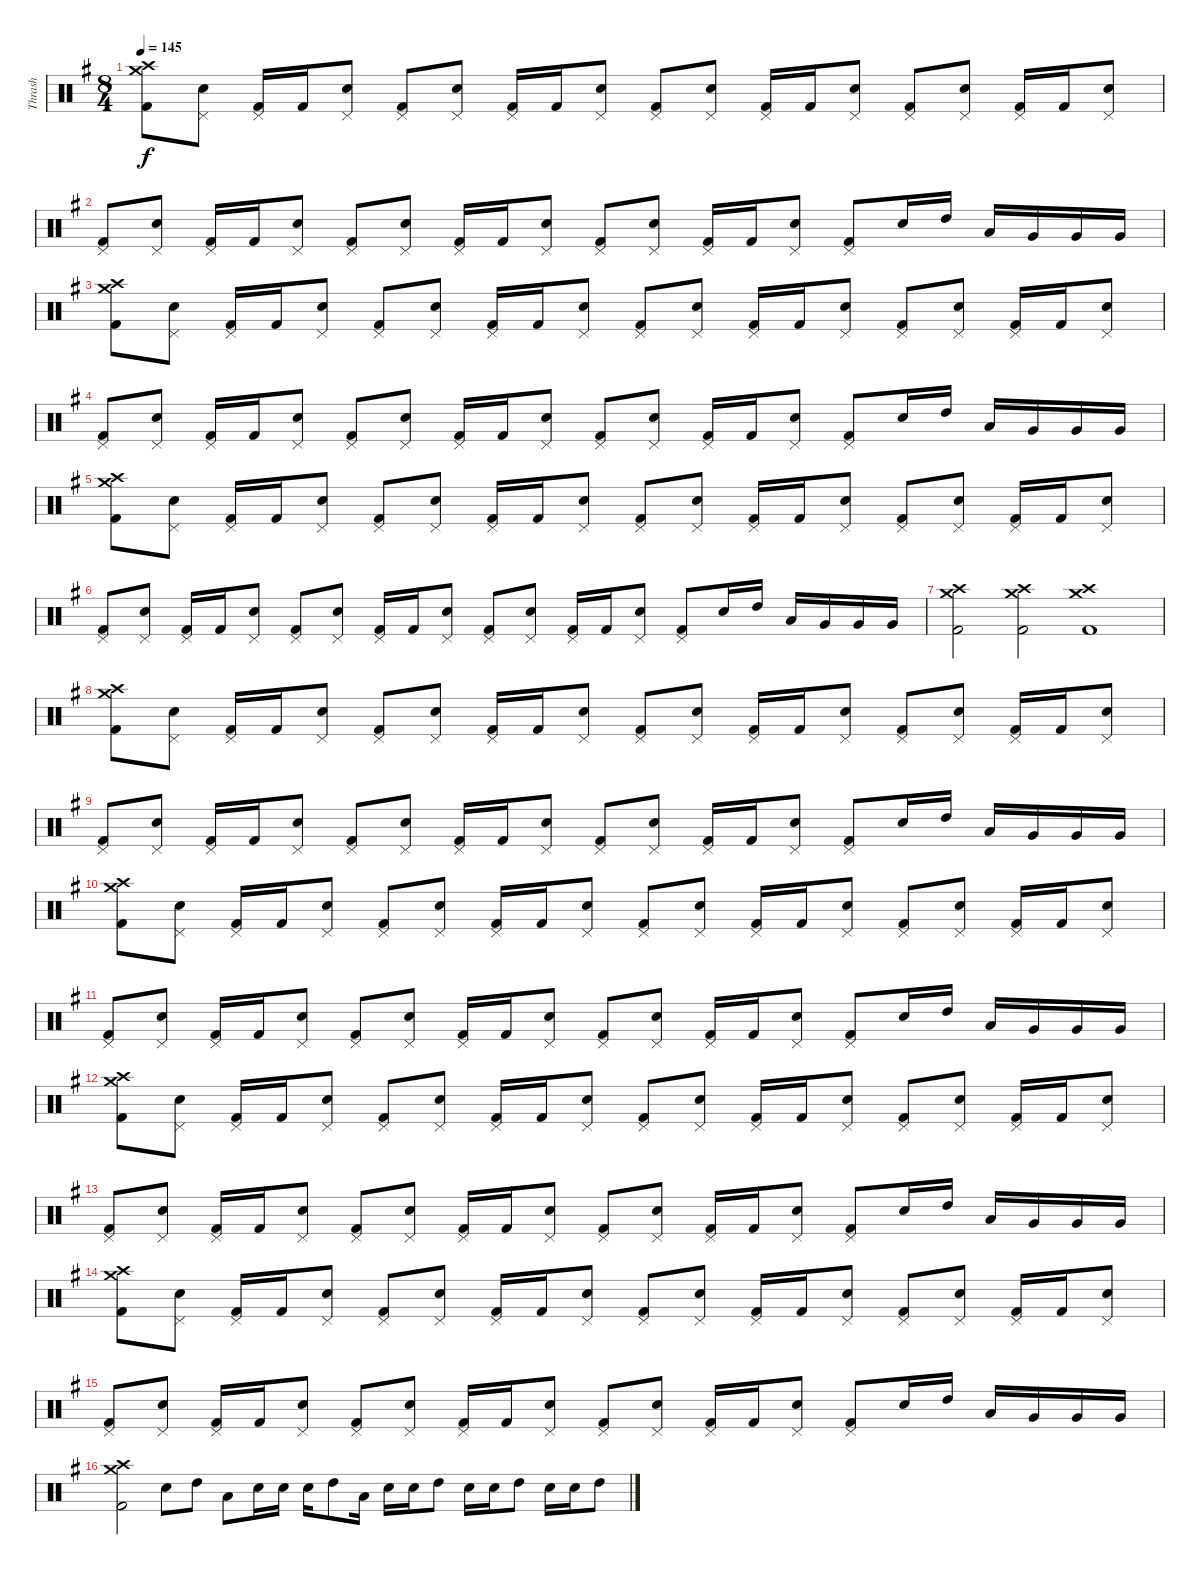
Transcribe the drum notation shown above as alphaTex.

\track ("Thrash" "Thrash") {instrument percussion}
\staff {score}
\articulation defaults
\ts (8 4)
\tempo 145
\clef neutral
\ks eminor
("Crash medium (hit)" "Crash high (hit)" "Kick (hit) 2").8{dy f} ("Pedal Hi-Hat (hit)" "Snare (hit) 2").8 ("Pedal Hi-Hat (hit)" "Kick (hit) 2").16 "Kick (hit) 2".16 ("Pedal Hi-Hat (hit)" "Snare (hit) 2").8 ("Pedal Hi-Hat (hit)" "Kick (hit) 2").8 ("Pedal Hi-Hat (hit)" "Snare (hit) 2").8 ("Pedal Hi-Hat (hit)" "Kick (hit) 2").16 "Kick (hit) 2".16 ("Pedal Hi-Hat (hit)" "Snare (hit) 2").8 ("Pedal Hi-Hat (hit)" "Kick (hit) 2").8 ("Pedal Hi-Hat (hit)" "Snare (hit) 2").8 ("Pedal Hi-Hat (hit)" "Kick (hit) 2").16 "Kick (hit) 2".16 ("Pedal Hi-Hat (hit)" "Snare (hit) 2").8 ("Pedal Hi-Hat (hit)" "Kick (hit) 2").8 ("Pedal Hi-Hat (hit)" "Snare (hit) 2").8 ("Pedal Hi-Hat (hit)" "Kick (hit) 2").16 "Kick (hit) 2".16 ("Pedal Hi-Hat (hit)" "Snare (hit) 2").8 |
("Pedal Hi-Hat (hit)" "Kick (hit) 2").8 ("Pedal Hi-Hat (hit)" "Snare (hit) 2").8 ("Pedal Hi-Hat (hit)" "Kick (hit) 2").16 "Kick (hit) 2".16 ("Pedal Hi-Hat (hit)" "Snare (hit) 2").8 ("Pedal Hi-Hat (hit)" "Kick (hit) 2").8 ("Pedal Hi-Hat (hit)" "Snare (hit) 2").8 ("Pedal Hi-Hat (hit)" "Kick (hit) 2").16 "Kick (hit) 2".16 ("Pedal Hi-Hat (hit)" "Snare (hit) 2").8 ("Pedal Hi-Hat (hit)" "Kick (hit) 2").8 ("Pedal Hi-Hat (hit)" "Snare (hit) 2").8 ("Pedal Hi-Hat (hit)" "Kick (hit) 2").16 "Kick (hit) 2".16 ("Pedal Hi-Hat (hit)" "Snare (hit) 2").8 ("Pedal Hi-Hat (hit)" "Kick (hit) 2").8 "Snare (hit) 2".16 "High Tom (hit)".16 "Low Tom (hit)".16 "Very Low Tom (hit)".16 "Very Low Tom (hit)".16 "Very Low Tom (hit)".16 |
("Crash medium (hit)" "Crash high (hit)" "Kick (hit) 2").8 ("Pedal Hi-Hat (hit)" "Snare (hit) 2").8 ("Pedal Hi-Hat (hit)" "Kick (hit) 2").16 "Kick (hit) 2".16 ("Pedal Hi-Hat (hit)" "Snare (hit) 2").8 ("Pedal Hi-Hat (hit)" "Kick (hit) 2").8 ("Pedal Hi-Hat (hit)" "Snare (hit) 2").8 ("Pedal Hi-Hat (hit)" "Kick (hit) 2").16 "Kick (hit) 2".16 ("Pedal Hi-Hat (hit)" "Snare (hit) 2").8 ("Pedal Hi-Hat (hit)" "Kick (hit) 2").8 ("Pedal Hi-Hat (hit)" "Snare (hit) 2").8 ("Pedal Hi-Hat (hit)" "Kick (hit) 2").16 "Kick (hit) 2".16 ("Pedal Hi-Hat (hit)" "Snare (hit) 2").8 ("Pedal Hi-Hat (hit)" "Kick (hit) 2").8 ("Pedal Hi-Hat (hit)" "Snare (hit) 2").8 ("Pedal Hi-Hat (hit)" "Kick (hit) 2").16 "Kick (hit) 2".16 ("Pedal Hi-Hat (hit)" "Snare (hit) 2").8 |
("Pedal Hi-Hat (hit)" "Kick (hit) 2").8 ("Pedal Hi-Hat (hit)" "Snare (hit) 2").8 ("Pedal Hi-Hat (hit)" "Kick (hit) 2").16 "Kick (hit) 2".16 ("Pedal Hi-Hat (hit)" "Snare (hit) 2").8 ("Pedal Hi-Hat (hit)" "Kick (hit) 2").8 ("Pedal Hi-Hat (hit)" "Snare (hit) 2").8 ("Pedal Hi-Hat (hit)" "Kick (hit) 2").16 "Kick (hit) 2".16 ("Pedal Hi-Hat (hit)" "Snare (hit) 2").8 ("Pedal Hi-Hat (hit)" "Kick (hit) 2").8 ("Pedal Hi-Hat (hit)" "Snare (hit) 2").8 ("Pedal Hi-Hat (hit)" "Kick (hit) 2").16 "Kick (hit) 2".16 ("Pedal Hi-Hat (hit)" "Snare (hit) 2").8 ("Pedal Hi-Hat (hit)" "Kick (hit) 2").8 "Snare (hit) 2".16 "High Tom (hit)".16 "Low Tom (hit)".16 "Very Low Tom (hit)".16 "Very Low Tom (hit)".16 "Very Low Tom (hit)".16 |
("Crash medium (hit)" "Crash high (hit)" "Kick (hit) 2").8 ("Pedal Hi-Hat (hit)" "Snare (hit) 2").8 ("Pedal Hi-Hat (hit)" "Kick (hit) 2").16 "Kick (hit) 2".16 ("Pedal Hi-Hat (hit)" "Snare (hit) 2").8 ("Pedal Hi-Hat (hit)" "Kick (hit) 2").8 ("Pedal Hi-Hat (hit)" "Snare (hit) 2").8 ("Pedal Hi-Hat (hit)" "Kick (hit) 2").16 "Kick (hit) 2".16 ("Pedal Hi-Hat (hit)" "Snare (hit) 2").8 ("Pedal Hi-Hat (hit)" "Kick (hit) 2").8 ("Pedal Hi-Hat (hit)" "Snare (hit) 2").8 ("Pedal Hi-Hat (hit)" "Kick (hit) 2").16 "Kick (hit) 2".16 ("Pedal Hi-Hat (hit)" "Snare (hit) 2").8 ("Pedal Hi-Hat (hit)" "Kick (hit) 2").8 ("Pedal Hi-Hat (hit)" "Snare (hit) 2").8 ("Pedal Hi-Hat (hit)" "Kick (hit) 2").16 "Kick (hit) 2".16 ("Pedal Hi-Hat (hit)" "Snare (hit) 2").8 |
("Pedal Hi-Hat (hit)" "Kick (hit) 2").8 ("Pedal Hi-Hat (hit)" "Snare (hit) 2").8 ("Pedal Hi-Hat (hit)" "Kick (hit) 2").16 "Kick (hit) 2".16 ("Pedal Hi-Hat (hit)" "Snare (hit) 2").8 ("Pedal Hi-Hat (hit)" "Kick (hit) 2").8 ("Pedal Hi-Hat (hit)" "Snare (hit) 2").8 ("Pedal Hi-Hat (hit)" "Kick (hit) 2").16 "Kick (hit) 2".16 ("Pedal Hi-Hat (hit)" "Snare (hit) 2").8 ("Pedal Hi-Hat (hit)" "Kick (hit) 2").8 ("Pedal Hi-Hat (hit)" "Snare (hit) 2").8 ("Pedal Hi-Hat (hit)" "Kick (hit) 2").16 "Kick (hit) 2".16 ("Pedal Hi-Hat (hit)" "Snare (hit) 2").8 ("Pedal Hi-Hat (hit)" "Kick (hit) 2").8 "Snare (hit) 2".16 "High Tom (hit)".16 "Low Tom (hit)".16 "Very Low Tom (hit)".16 "Very Low Tom (hit)".16 "Very Low Tom (hit)".16 |
("Crash medium (hit)" "Crash high (hit)" "Kick (hit) 2").2 ("Crash medium (hit)" "Crash high (hit)" "Kick (hit) 2").2 ("Crash medium (hit)" "Crash high (hit)" "Kick (hit) 2").1 |
("Crash medium (hit)" "Crash high (hit)" "Kick (hit) 2").8 ("Pedal Hi-Hat (hit)" "Snare (hit) 2").8 ("Pedal Hi-Hat (hit)" "Kick (hit) 2").16 "Kick (hit) 2".16 ("Pedal Hi-Hat (hit)" "Snare (hit) 2").8 ("Pedal Hi-Hat (hit)" "Kick (hit) 2").8 ("Pedal Hi-Hat (hit)" "Snare (hit) 2").8 ("Pedal Hi-Hat (hit)" "Kick (hit) 2").16 "Kick (hit) 2".16 ("Pedal Hi-Hat (hit)" "Snare (hit) 2").8 ("Pedal Hi-Hat (hit)" "Kick (hit) 2").8 ("Pedal Hi-Hat (hit)" "Snare (hit) 2").8 ("Pedal Hi-Hat (hit)" "Kick (hit) 2").16 "Kick (hit) 2".16 ("Pedal Hi-Hat (hit)" "Snare (hit) 2").8 ("Pedal Hi-Hat (hit)" "Kick (hit) 2").8 ("Pedal Hi-Hat (hit)" "Snare (hit) 2").8 ("Pedal Hi-Hat (hit)" "Kick (hit) 2").16 "Kick (hit) 2".16 ("Pedal Hi-Hat (hit)" "Snare (hit) 2").8 |
("Pedal Hi-Hat (hit)" "Kick (hit) 2").8 ("Pedal Hi-Hat (hit)" "Snare (hit) 2").8 ("Pedal Hi-Hat (hit)" "Kick (hit) 2").16 "Kick (hit) 2".16 ("Pedal Hi-Hat (hit)" "Snare (hit) 2").8 ("Pedal Hi-Hat (hit)" "Kick (hit) 2").8 ("Pedal Hi-Hat (hit)" "Snare (hit) 2").8 ("Pedal Hi-Hat (hit)" "Kick (hit) 2").16 "Kick (hit) 2".16 ("Pedal Hi-Hat (hit)" "Snare (hit) 2").8 ("Pedal Hi-Hat (hit)" "Kick (hit) 2").8 ("Pedal Hi-Hat (hit)" "Snare (hit) 2").8 ("Pedal Hi-Hat (hit)" "Kick (hit) 2").16 "Kick (hit) 2".16 ("Pedal Hi-Hat (hit)" "Snare (hit) 2").8 ("Pedal Hi-Hat (hit)" "Kick (hit) 2").8 "Snare (hit) 2".16 "High Tom (hit)".16 "Low Tom (hit)".16 "Very Low Tom (hit)".16 "Very Low Tom (hit)".16 "Very Low Tom (hit)".16 |
("Crash medium (hit)" "Crash high (hit)" "Kick (hit) 2").8 ("Pedal Hi-Hat (hit)" "Snare (hit) 2").8 ("Pedal Hi-Hat (hit)" "Kick (hit) 2").16 "Kick (hit) 2".16 ("Pedal Hi-Hat (hit)" "Snare (hit) 2").8 ("Pedal Hi-Hat (hit)" "Kick (hit) 2").8 ("Pedal Hi-Hat (hit)" "Snare (hit) 2").8 ("Pedal Hi-Hat (hit)" "Kick (hit) 2").16 "Kick (hit) 2".16 ("Pedal Hi-Hat (hit)" "Snare (hit) 2").8 ("Pedal Hi-Hat (hit)" "Kick (hit) 2").8 ("Pedal Hi-Hat (hit)" "Snare (hit) 2").8 ("Pedal Hi-Hat (hit)" "Kick (hit) 2").16 "Kick (hit) 2".16 ("Pedal Hi-Hat (hit)" "Snare (hit) 2").8 ("Pedal Hi-Hat (hit)" "Kick (hit) 2").8 ("Pedal Hi-Hat (hit)" "Snare (hit) 2").8 ("Pedal Hi-Hat (hit)" "Kick (hit) 2").16 "Kick (hit) 2".16 ("Pedal Hi-Hat (hit)" "Snare (hit) 2").8 |
("Pedal Hi-Hat (hit)" "Kick (hit) 2").8 ("Pedal Hi-Hat (hit)" "Snare (hit) 2").8 ("Pedal Hi-Hat (hit)" "Kick (hit) 2").16 "Kick (hit) 2".16 ("Pedal Hi-Hat (hit)" "Snare (hit) 2").8 ("Pedal Hi-Hat (hit)" "Kick (hit) 2").8 ("Pedal Hi-Hat (hit)" "Snare (hit) 2").8 ("Pedal Hi-Hat (hit)" "Kick (hit) 2").16 "Kick (hit) 2".16 ("Pedal Hi-Hat (hit)" "Snare (hit) 2").8 ("Pedal Hi-Hat (hit)" "Kick (hit) 2").8 ("Pedal Hi-Hat (hit)" "Snare (hit) 2").8 ("Pedal Hi-Hat (hit)" "Kick (hit) 2").16 "Kick (hit) 2".16 ("Pedal Hi-Hat (hit)" "Snare (hit) 2").8 ("Pedal Hi-Hat (hit)" "Kick (hit) 2").8 "Snare (hit) 2".16 "High Tom (hit)".16 "Low Tom (hit)".16 "Very Low Tom (hit)".16 "Very Low Tom (hit)".16 "Very Low Tom (hit)".16 |
("Crash medium (hit)" "Crash high (hit)" "Kick (hit) 2").8 ("Pedal Hi-Hat (hit)" "Snare (hit) 2").8 ("Pedal Hi-Hat (hit)" "Kick (hit) 2").16 "Kick (hit) 2".16 ("Pedal Hi-Hat (hit)" "Snare (hit) 2").8 ("Pedal Hi-Hat (hit)" "Kick (hit) 2").8 ("Pedal Hi-Hat (hit)" "Snare (hit) 2").8 ("Pedal Hi-Hat (hit)" "Kick (hit) 2").16 "Kick (hit) 2".16 ("Pedal Hi-Hat (hit)" "Snare (hit) 2").8 ("Pedal Hi-Hat (hit)" "Kick (hit) 2").8 ("Pedal Hi-Hat (hit)" "Snare (hit) 2").8 ("Pedal Hi-Hat (hit)" "Kick (hit) 2").16 "Kick (hit) 2".16 ("Pedal Hi-Hat (hit)" "Snare (hit) 2").8 ("Pedal Hi-Hat (hit)" "Kick (hit) 2").8 ("Pedal Hi-Hat (hit)" "Snare (hit) 2").8 ("Pedal Hi-Hat (hit)" "Kick (hit) 2").16 "Kick (hit) 2".16 ("Pedal Hi-Hat (hit)" "Snare (hit) 2").8 |
("Pedal Hi-Hat (hit)" "Kick (hit) 2").8 ("Pedal Hi-Hat (hit)" "Snare (hit) 2").8 ("Pedal Hi-Hat (hit)" "Kick (hit) 2").16 "Kick (hit) 2".16 ("Pedal Hi-Hat (hit)" "Snare (hit) 2").8 ("Pedal Hi-Hat (hit)" "Kick (hit) 2").8 ("Pedal Hi-Hat (hit)" "Snare (hit) 2").8 ("Pedal Hi-Hat (hit)" "Kick (hit) 2").16 "Kick (hit) 2".16 ("Pedal Hi-Hat (hit)" "Snare (hit) 2").8 ("Pedal Hi-Hat (hit)" "Kick (hit) 2").8 ("Pedal Hi-Hat (hit)" "Snare (hit) 2").8 ("Pedal Hi-Hat (hit)" "Kick (hit) 2").16 "Kick (hit) 2".16 ("Pedal Hi-Hat (hit)" "Snare (hit) 2").8 ("Pedal Hi-Hat (hit)" "Kick (hit) 2").8 "Snare (hit) 2".16 "High Tom (hit)".16 "Low Tom (hit)".16 "Very Low Tom (hit)".16 "Very Low Tom (hit)".16 "Very Low Tom (hit)".16 |
("Crash medium (hit)" "Crash high (hit)" "Kick (hit) 2").8 ("Pedal Hi-Hat (hit)" "Snare (hit) 2").8 ("Pedal Hi-Hat (hit)" "Kick (hit) 2").16 "Kick (hit) 2".16 ("Pedal Hi-Hat (hit)" "Snare (hit) 2").8 ("Pedal Hi-Hat (hit)" "Kick (hit) 2").8 ("Pedal Hi-Hat (hit)" "Snare (hit) 2").8 ("Pedal Hi-Hat (hit)" "Kick (hit) 2").16 "Kick (hit) 2".16 ("Pedal Hi-Hat (hit)" "Snare (hit) 2").8 ("Pedal Hi-Hat (hit)" "Kick (hit) 2").8 ("Pedal Hi-Hat (hit)" "Snare (hit) 2").8 ("Pedal Hi-Hat (hit)" "Kick (hit) 2").16 "Kick (hit) 2".16 ("Pedal Hi-Hat (hit)" "Snare (hit) 2").8 ("Pedal Hi-Hat (hit)" "Kick (hit) 2").8 ("Pedal Hi-Hat (hit)" "Snare (hit) 2").8 ("Pedal Hi-Hat (hit)" "Kick (hit) 2").16 "Kick (hit) 2".16 ("Pedal Hi-Hat (hit)" "Snare (hit) 2").8 |
("Pedal Hi-Hat (hit)" "Kick (hit) 2").8 ("Pedal Hi-Hat (hit)" "Snare (hit) 2").8 ("Pedal Hi-Hat (hit)" "Kick (hit) 2").16 "Kick (hit) 2".16 ("Pedal Hi-Hat (hit)" "Snare (hit) 2").8 ("Pedal Hi-Hat (hit)" "Kick (hit) 2").8 ("Pedal Hi-Hat (hit)" "Snare (hit) 2").8 ("Pedal Hi-Hat (hit)" "Kick (hit) 2").16 "Kick (hit) 2".16 ("Pedal Hi-Hat (hit)" "Snare (hit) 2").8 ("Pedal Hi-Hat (hit)" "Kick (hit) 2").8 ("Pedal Hi-Hat (hit)" "Snare (hit) 2").8 ("Pedal Hi-Hat (hit)" "Kick (hit) 2").16 "Kick (hit) 2".16 ("Pedal Hi-Hat (hit)" "Snare (hit) 2").8 ("Pedal Hi-Hat (hit)" "Kick (hit) 2").8 "Snare (hit) 2".16 "High Tom (hit)".16 "Low Tom (hit)".16 "Very Low Tom (hit)".16 "Very Low Tom (hit)".16 "Very Low Tom (hit)".16 |
("Crash medium (hit)" "Crash high (hit)" "Kick (hit) 2").2 "Snare (hit) 2".8 "High Tom (hit)".8 "Low Tom (hit)".8 "Snare (hit) 2".16 "Snare (hit) 2".16 "Snare (hit) 2".16 "High Tom (hit)".8 "Low Tom (hit)".16 "Snare (hit) 2".16 "Snare (hit) 2".16 "High Tom (hit)".8 "Snare (hit) 2".16 "Snare (hit) 2".16 "High Tom (hit)".8 "Snare (hit) 2".16 "Snare (hit) 2".16 "High Tom (hit)".8
